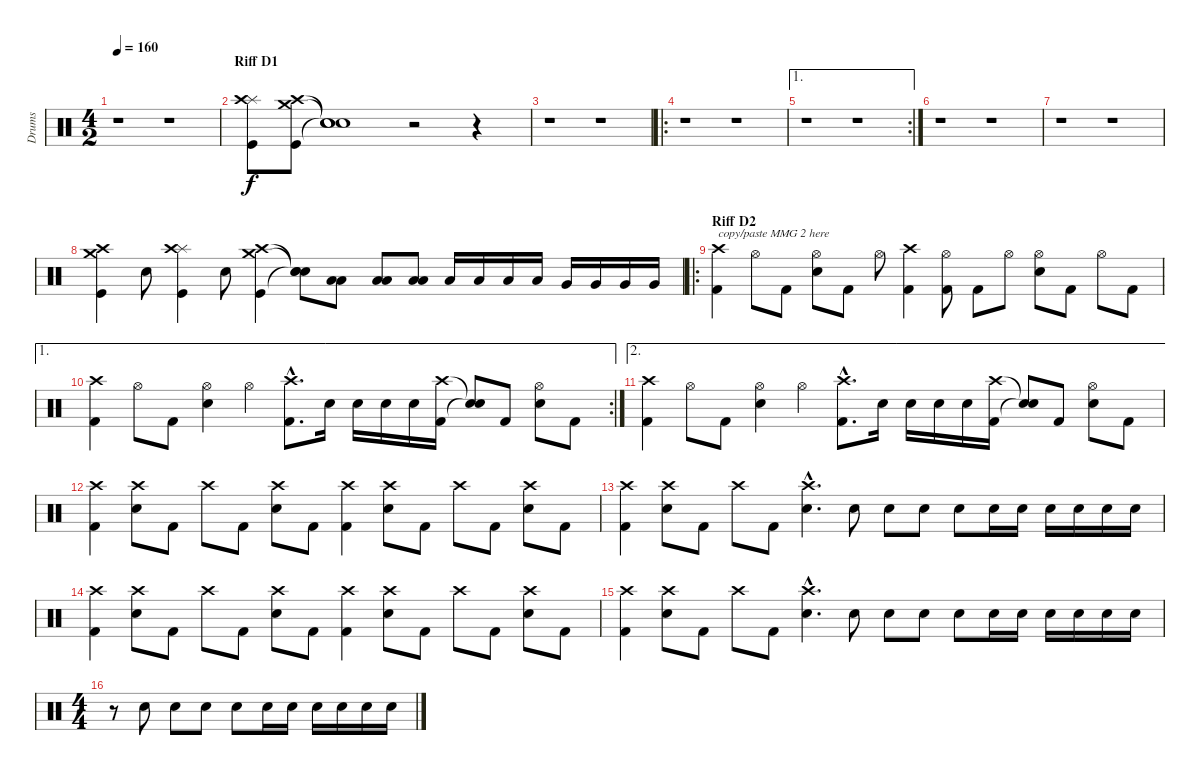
\track ("Drums" "Drums") {instrument percussion}
\staff {score}
\articulation defaults
\ts (4 2)
\tempo 160
\clef neutral
\ks c
r.1{dy f} r.1 |
\section ("" "Riff D1")
("Kick (hit)" "Splash (hit)" "Crash high (hit)").8 ("Kick (hit)" "Crash medium (hit)" "Crash high (hit)").8 ("Snare (hit)"{t} "Snare (hit)"{t} "Snare (hit)"{t}).1 r.2 r.4 |
r.1 r.1 |
\ro
r.1 r.1 |
\ae 1
\rc 2
r.1 r.1 |
r.1 r.1 |
r.1 r.1 |
("Kick (hit)" "Crash medium (hit)" "Crash high (hit)").4 "Electric Snare (hit)".8 ("Kick (hit)" "Splash (hit)" "Crash high (hit)").4 "Electric Snare (hit)".8 ("Kick (hit)" "Crash medium (hit)" "Crash high (hit)").4 ("Snare (hit)"{t} "Snare (hit)"{t} "Snare (hit)"{t}).8 ("Low Floor Tom (hit)" "Low Tom (hit)").8 ("Low Floor Tom (hit)" "Low Tom (hit)").8 ("Low Floor Tom (hit)" "Low Tom (hit)").8 "Low Tom (hit)".16 "Low Tom (hit)".16 "Low Tom (hit)".16 "Low Tom (hit)".16 "Very Low Tom (hit)".16 "Very Low Tom (hit)".16 "Very Low Tom (hit)".16 "Very Low Tom (hit)".16 |
\ro
\section ("" "Riff D2")
("Crash high (hit)" "Kick (hit) 2").4{txt "copy/paste MMG 2 here"} "Hi-Hat (open)".8 "Kick (hit) 2".8 ("Hi-Hat (open)" "Electric Snare (hit)").8 "Kick (hit) 2".8 "Hi-Hat (open)".8 ("Crash high (hit)" "Kick (hit) 2").4 ("Hi-Hat (open)" "Kick (hit) 2").8 "Kick (hit) 2".8 "Hi-Hat (open)".8 ("Hi-Hat (open)" "Electric Snare (hit)").8 "Kick (hit) 2".8 "Hi-Hat (open)".8 "Kick (hit) 2".8 |
\ae 1
\rc 2
("Crash high (hit)" "Kick (hit) 2").4 "Hi-Hat (open)".8 "Kick (hit) 2".8 ("Hi-Hat (open)" "Electric Snare (hit)").4 "Hi-Hat (open)".4 ("Crash high (hit)"{hac} "Kick (hit) 2"{hac}).8{d} "Electric Snare (hit)".16 "Electric Snare (hit)".16 "Electric Snare (hit)".16 "Electric Snare (hit)".16 ("Crash high (hit)" "Kick (hit) 2").16 ("Snare (hit)"{t} "Snare (hit)"{t}).8 "Kick (hit) 2".8 ("Hi-Hat (open)" "Electric Snare (hit)").8 "Kick (hit) 2".8 |
\ae 2
("Crash high (hit)" "Kick (hit) 2").4 "Hi-Hat (open)".8 "Kick (hit) 2".8 ("Hi-Hat (open)" "Electric Snare (hit)").4 "Hi-Hat (open)".4 ("Crash high (hit)"{hac} "Kick (hit) 2"{hac}).8{d} "Electric Snare (hit)".16 "Electric Snare (hit)".16 "Electric Snare (hit)".16 "Electric Snare (hit)".16 ("Crash high (hit)" "Kick (hit) 2").16 ("Snare (hit)"{t} "Snare (hit)"{t}).8 "Kick (hit) 2".8 ("Hi-Hat (open)" "Electric Snare (hit)").8 "Kick (hit) 2".8 |
("Crash high (hit)" "Kick (hit) 2").4 ("Crash high (hit)" "Electric Snare (hit)").8 "Kick (hit) 2".8 "Crash high (hit)".8 "Kick (hit) 2".8 ("Crash high (hit)" "Electric Snare (hit)").8 "Kick (hit) 2".8 ("Crash high (hit)" "Kick (hit) 2").4 ("Crash high (hit)" "Electric Snare (hit)").8 "Kick (hit) 2".8 "Crash high (hit)".8 "Kick (hit) 2".8 ("Crash high (hit)" "Electric Snare (hit)").8 "Kick (hit) 2".8 |
("Crash high (hit)" "Kick (hit) 2").4 ("Crash high (hit)" "Electric Snare (hit)").8 "Kick (hit) 2".8 "Crash high (hit)".8 "Kick (hit) 2".8 ("Crash high (hit)"{hac} "Electric Snare (hit)"{hac}).4{d} "Electric Snare (hit)".8 "Electric Snare (hit)".8 "Electric Snare (hit)".8 "Electric Snare (hit)".8 "Electric Snare (hit)".16 "Electric Snare (hit)".16 "Electric Snare (hit)".16 "Electric Snare (hit)".16 "Electric Snare (hit)".16 "Electric Snare (hit)".16 |
("Crash high (hit)" "Kick (hit) 2").4 ("Crash high (hit)" "Electric Snare (hit)").8 "Kick (hit) 2".8 "Crash high (hit)".8 "Kick (hit) 2".8 ("Crash high (hit)" "Electric Snare (hit)").8 "Kick (hit) 2".8 ("Crash high (hit)" "Kick (hit) 2").4 ("Crash high (hit)" "Electric Snare (hit)").8 "Kick (hit) 2".8 "Crash high (hit)".8 "Kick (hit) 2".8 ("Crash high (hit)" "Electric Snare (hit)").8 "Kick (hit) 2".8 |
("Crash high (hit)" "Kick (hit) 2").4 ("Crash high (hit)" "Electric Snare (hit)").8 "Kick (hit) 2".8 "Crash high (hit)".8 "Kick (hit) 2".8 ("Crash high (hit)"{hac} "Electric Snare (hit)"{hac}).4{d} "Electric Snare (hit)".8 "Electric Snare (hit)".8 "Electric Snare (hit)".8 "Electric Snare (hit)".8 "Electric Snare (hit)".16 "Electric Snare (hit)".16 "Electric Snare (hit)".16 "Electric Snare (hit)".16 "Electric Snare (hit)".16 "Electric Snare (hit)".16 |
\ts (4 4)
r.8 "Electric Snare (hit)".8 "Electric Snare (hit)".8 "Electric Snare (hit)".8 "Electric Snare (hit)".8 "Electric Snare (hit)".16 "Electric Snare (hit)".16 "Electric Snare (hit)".16 "Electric Snare (hit)".16 "Electric Snare (hit)".16 "Electric Snare (hit)".16
